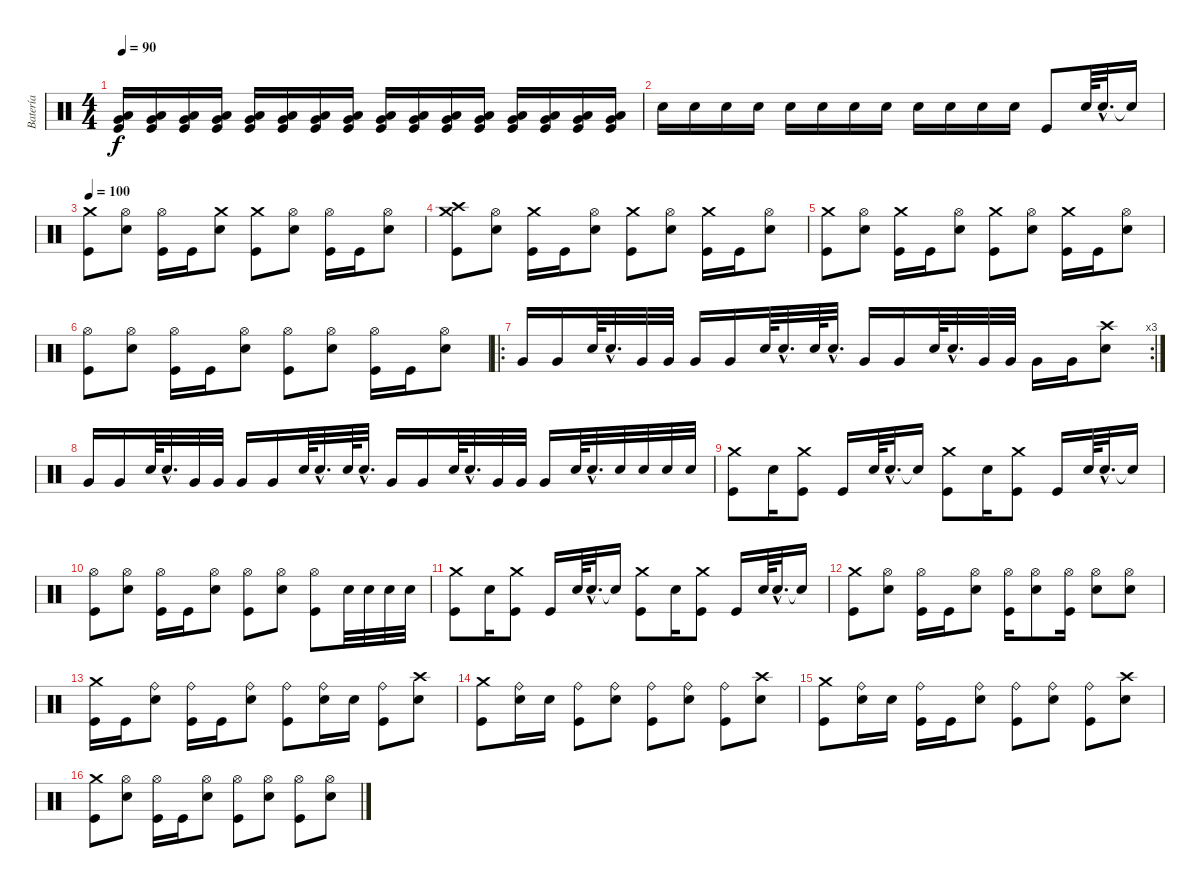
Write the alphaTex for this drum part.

\track ("Batería" "Batería") {instrument percussion}
\staff {score}
\articulation defaults
\ts (4 4)
\tempo 90
\clef neutral
\ks c
("Very Low Tom (hit)" "Low Tom (hit)" "Kick (hit)").16{dy f} ("Very Low Tom (hit)" "Low Tom (hit)" "Kick (hit)").16 ("Very Low Tom (hit)" "Low Tom (hit)" "Kick (hit)").16 ("Very Low Tom (hit)" "Low Tom (hit)" "Kick (hit)").16 ("Very Low Tom (hit)" "Low Tom (hit)" "Kick (hit)").16 ("Very Low Tom (hit)" "Low Tom (hit)" "Kick (hit)").16 ("Very Low Tom (hit)" "Low Tom (hit)" "Kick (hit)").16 ("Very Low Tom (hit)" "Low Tom (hit)" "Kick (hit)").16 ("Very Low Tom (hit)" "Low Tom (hit)" "Kick (hit)").16 ("Very Low Tom (hit)" "Low Tom (hit)" "Kick (hit)").16 ("Very Low Tom (hit)" "Low Tom (hit)" "Kick (hit)").16 ("Very Low Tom (hit)" "Low Tom (hit)" "Kick (hit)").16 ("Very Low Tom (hit)" "Low Tom (hit)" "Kick (hit)").16 ("Very Low Tom (hit)" "Low Tom (hit)" "Kick (hit)").16 ("Very Low Tom (hit)" "Low Tom (hit)" "Kick (hit)").16 ("Very Low Tom (hit)" "Low Tom (hit)" "Kick (hit)").16 |
"Snare (hit) 2".16 "Snare (hit) 2".16 "Snare (hit) 2".16 "Snare (hit) 2".16 "Snare (hit) 2".16 "Snare (hit) 2".16 "Snare (hit) 2".16 "Snare (hit) 2".16 "Snare (hit) 2".16 "Snare (hit) 2".16 "Snare (hit) 2".16 "Snare (hit) 2".16 "Kick (hit)".8 "Snare (hit) 2".64 "Snare (hit) 2"{hac}.32{d} "Snare (hit)"{t}.16 |
\tempo 100
("Crash medium (hit)" "Kick (hit)").8 ("Hi-Hat (open)" "Snare (hit) 2").8 ("Hi-Hat (open)" "Kick (hit)").16 "Kick (hit)".16 ("Crash medium (hit)" "Snare (hit) 2").8 ("Crash medium (hit)" "Kick (hit)").8 ("Hi-Hat (open)" "Snare (hit) 2").8 ("Hi-Hat (open)" "Kick (hit)").16 "Kick (hit)".16 ("Hi-Hat (open)" "Snare (hit) 2").8 |
("Crash medium (hit)" "Crash high (hit)" "Kick (hit)").8 ("Hi-Hat (open)" "Snare (hit) 2").8 ("Crash medium (hit)" "Kick (hit)").16 "Kick (hit)".16 ("Hi-Hat (open)" "Snare (hit) 2").8 ("Crash medium (hit)" "Kick (hit)").8 ("Hi-Hat (open)" "Snare (hit) 2").8 ("Crash medium (hit)" "Kick (hit)").16 "Kick (hit)".16 ("Hi-Hat (open)" "Snare (hit) 2").8 |
("Crash medium (hit)" "Kick (hit)").8 ("Hi-Hat (open)" "Snare (hit) 2").8 ("Crash medium (hit)" "Kick (hit)").16 "Kick (hit)".16 ("Hi-Hat (open)" "Snare (hit) 2").8 ("Crash medium (hit)" "Kick (hit)").8 ("Hi-Hat (open)" "Snare (hit) 2").8 ("Crash medium (hit)" "Kick (hit)").16 "Kick (hit)".16 ("Hi-Hat (open)" "Snare (hit) 2").8 |
("Hi-Hat (open)" "Kick (hit)").8 ("Hi-Hat (open)" "Snare (hit) 2").8 ("Hi-Hat (open)" "Kick (hit)").16 "Kick (hit)".16 ("Hi-Hat (open)" "Snare (hit) 2").8 ("Hi-Hat (open)" "Kick (hit)").8 ("Hi-Hat (open)" "Snare (hit) 2").8 ("Hi-Hat (open)" "Kick (hit)").16 "Kick (hit)".16 ("Hi-Hat (open)" "Snare (hit) 2").8 |
\ro
\rc 3 "Very Low Tom (hit)".16 "Very Low Tom (hit)".16 "Snare (hit) 2".64 "Snare (hit) 2"{hac}.32{d} "Very Low Tom (hit)".32 "Very Low Tom (hit)".32 "Very Low Tom (hit)".16 "Very Low Tom (hit)".16 "Snare (hit) 2".64 "Snare (hit) 2"{hac}.32{d} "Snare (hit) 2".64 "Snare (hit) 2"{hac}.32{d} "Very Low Tom (hit)".16 "Very Low Tom (hit)".16 "Snare (hit) 2".64 "Snare (hit) 2"{hac}.32{d} "Very Low Tom (hit)".32 "Very Low Tom (hit)".32 "Very Low Tom (hit)".16 "Very Low Tom (hit)".16
("Crash high (hit)" "Snare (hit) 2").8 |
"Very Low Tom (hit)".16 "Very Low Tom (hit)".16 "Snare (hit) 2".64 "Snare (hit) 2"{hac}.32{d} "Very Low Tom (hit)".32 "Very Low Tom (hit)".32 "Very Low Tom (hit)".16 "Very Low Tom (hit)".16 "Snare (hit) 2".64 "Snare (hit) 2"{hac}.32{d} "Snare (hit) 2".64 "Snare (hit) 2"{hac}.32{d} "Very Low Tom (hit)".16 "Very Low Tom (hit)".16 "Snare (hit) 2".64 "Snare (hit) 2"{hac}.32{d} "Very Low Tom (hit)".32 "Very Low Tom (hit)".32 "Very Low Tom (hit)".16 "Snare (hit) 2".64 "Snare (hit) 2"{hac}.32{d} "Snare (hit) 2".32 "Snare (hit) 2".32 "Snare (hit) 2".32 "Snare (hit) 2".32 |
("Crash medium (hit)" "Kick (hit)").8 "Snare (hit) 2".16 ("Crash medium (hit)" "Kick (hit)").8 "Kick (hit)".16 "Snare (hit) 2".64 "Snare (hit) 2"{hac}.32{d} "Snare (hit)"{t}.16 ("Crash medium (hit)" "Kick (hit)").8 "Snare (hit) 2".16 ("Crash medium (hit)" "Kick (hit)").8 "Kick (hit)".16 "Snare (hit) 2".64 "Snare (hit) 2"{hac}.32{d} "Snare (hit)"{t}.16 |
("Hi-Hat (open)" "Kick (hit)").8 ("Hi-Hat (open)" "Snare (hit) 2").8 ("Hi-Hat (open)" "Kick (hit)").16 "Kick (hit)".16 ("Hi-Hat (open)" "Snare (hit) 2").8 ("Hi-Hat (open)" "Kick (hit)").8 ("Hi-Hat (open)" "Snare (hit) 2").8 ("Hi-Hat (open)" "Kick (hit)").8 "Snare (hit) 2".32 "Snare (hit) 2".32 "Snare (hit) 2".32 "Snare (hit) 2".32 |
("Crash medium (hit)" "Kick (hit)").8 "Snare (hit) 2".16 ("Crash medium (hit)" "Kick (hit)").8 "Kick (hit)".16 "Snare (hit) 2".64 "Snare (hit) 2"{hac}.32{d} "Snare (hit)"{t}.16 ("Crash medium (hit)" "Kick (hit)").8 "Snare (hit) 2".16 ("Crash medium (hit)" "Kick (hit)").8 "Kick (hit)".16 "Snare (hit) 2".64 "Snare (hit) 2"{hac}.32{d} "Snare (hit)"{t}.16 |
("Crash medium (hit)" "Kick (hit)").8 ("Hi-Hat (open)" "Snare (hit) 2").8 ("Hi-Hat (open)" "Kick (hit)").16 "Kick (hit)".16 ("Hi-Hat (open)" "Snare (hit) 2").8 ("Hi-Hat (open)" "Kick (hit)").16 ("Hi-Hat (open)" "Snare (hit) 2").8 ("Hi-Hat (open)" "Kick (hit)").16 ("Hi-Hat (open)" "Snare (hit) 2").8 ("Hi-Hat (open)" "Snare (hit) 2").8 |
("Crash medium (hit)" "Kick (hit)").16 "Kick (hit)".16 ("Ride (bell)" "Snare (hit) 2").8 ("Ride (bell)" "Kick (hit)").16 "Kick (hit)".16 ("Ride (bell)" "Snare (hit) 2").8 ("Ride (bell)" "Kick (hit)").8 ("Ride (bell)" "Snare (hit) 2").16 "Snare (hit) 2".16 ("Ride (bell)" "Kick (hit)").8 ("Crash high (hit)" "Snare (hit) 2").8 |
("Crash medium (hit)" "Kick (hit)").8 ("Ride (bell)" "Snare (hit) 2").16 "Snare (hit) 2".16 ("Ride (bell)" "Kick (hit)").8 ("Ride (bell)" "Snare (hit) 2").8 ("Ride (bell)" "Kick (hit)").8 ("Ride (bell)" "Snare (hit) 2").8 ("Ride (bell)" "Kick (hit)").8 ("Crash high (hit)" "Snare (hit) 2").8 |
("Crash medium (hit)" "Kick (hit)").8 ("Ride (bell)" "Snare (hit) 2").16 "Snare (hit) 2".16 ("Ride (bell)" "Kick (hit)").16 "Kick (hit)".16 ("Ride (bell)" "Snare (hit) 2").8 ("Ride (bell)" "Kick (hit)").8 ("Ride (bell)" "Snare (hit) 2").8 ("Ride (bell)" "Kick (hit)").8 ("Crash high (hit)" "Snare (hit) 2").8 |
("Crash medium (hit)" "Kick (hit)").8 ("Hi-Hat (open)" "Snare (hit) 2").8 ("Hi-Hat (open)" "Kick (hit)").16 "Kick (hit)".16 ("Hi-Hat (open)" "Snare (hit) 2").8 ("Hi-Hat (open)" "Kick (hit)").8 ("Hi-Hat (open)" "Snare (hit) 2").8 ("Hi-Hat (open)" "Kick (hit)").8 ("Hi-Hat (open)" "Snare (hit) 2").8
